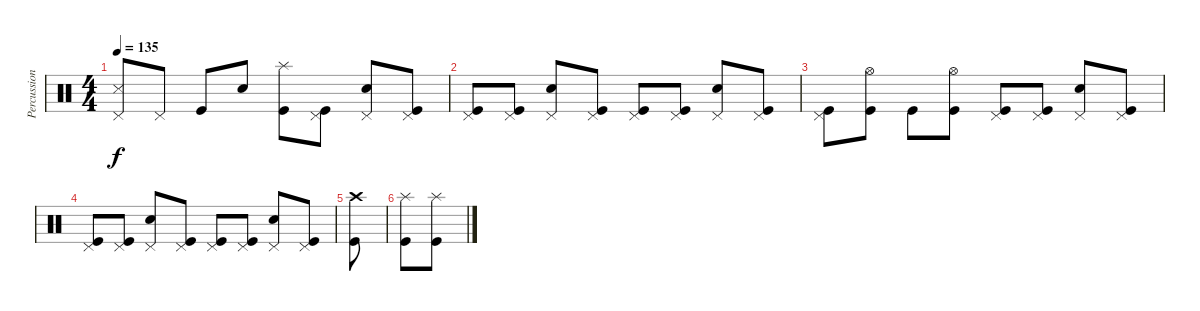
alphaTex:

\track ("Percussion" "Percussion") {instrument percussion}
\staff {score}
\articulation defaults
\ts (4 4)
\tempo 135
\clef neutral
\ks c
("Snare (side stick) 3" "Pedal Hi-Hat (hit)").8{dy f} "Pedal Hi-Hat (hit)".8 "Kick (hit)".8 "Electric Snare (hit)".8 ("Splash (hit)" "Kick (hit)").8 ("Kick (hit)" "Pedal Hi-Hat (hit)").8 ("Electric Snare (hit)" "Pedal Hi-Hat (hit)").8 ("Kick (hit)" "Pedal Hi-Hat (hit)").8 |
("Kick (hit)" "Pedal Hi-Hat (hit)").8 ("Kick (hit)" "Pedal Hi-Hat (hit)").8 ("Electric Snare (hit)" "Pedal Hi-Hat (hit)").8 ("Kick (hit)" "Pedal Hi-Hat (hit)").8 ("Kick (hit)" "Pedal Hi-Hat (hit)").8 ("Kick (hit)" "Pedal Hi-Hat (hit)").8 ("Electric Snare (hit)" "Pedal Hi-Hat (hit)").8 ("Kick (hit)" "Pedal Hi-Hat (hit)").8 |
("Kick (hit)" "Pedal Hi-Hat (hit)").8 ("Kick (hit)" "Hi-Hat (open)").8 "Kick (hit)".8 ("Kick (hit)" "Hi-Hat (open)").8 ("Pedal Hi-Hat (hit)" "Kick (hit)").8 ("Pedal Hi-Hat (hit)" "Kick (hit)").8 ("Pedal Hi-Hat (hit)" "Electric Snare (hit)").8 ("Pedal Hi-Hat (hit)" "Kick (hit)").8 |
("Pedal Hi-Hat (hit)" "Kick (hit)").8 ("Pedal Hi-Hat (hit)" "Kick (hit)").8 ("Pedal Hi-Hat (hit)" "Electric Snare (hit)").8 ("Pedal Hi-Hat (hit)" "Kick (hit)").8 ("Pedal Hi-Hat (hit)" "Kick (hit)").8 ("Pedal Hi-Hat (hit)" "Kick (hit)").8 ("Pedal Hi-Hat (hit)" "Electric Snare (hit)").8 ("Pedal Hi-Hat (hit)" "Kick (hit)").8 |
("Crash high (hit)" "Kick (hit)").8 |
("Splash (hit)" "Kick (hit)").8 ("Splash (hit)" "Kick (hit)").8
